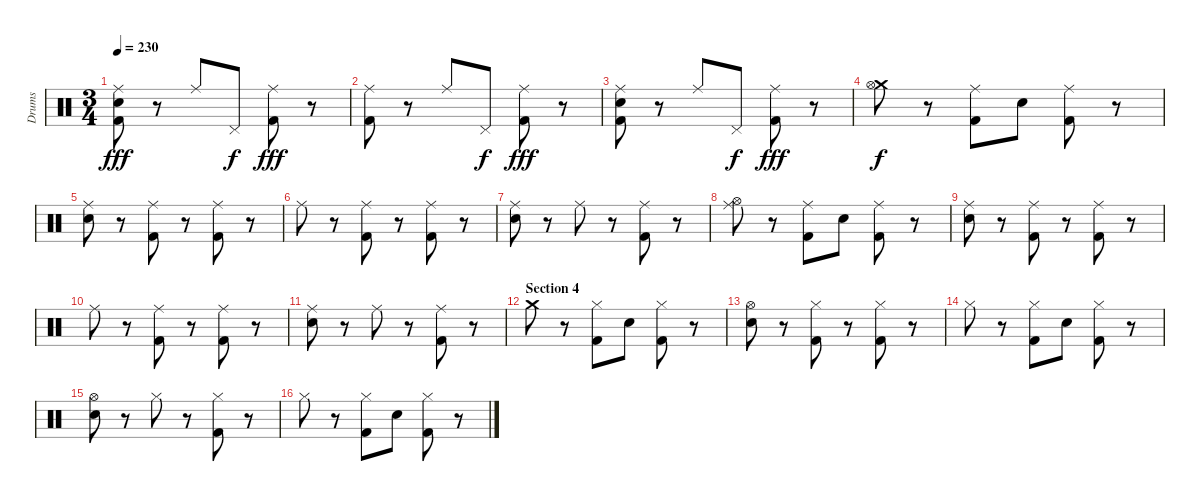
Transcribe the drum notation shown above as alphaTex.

\track ("Drums" "Drums") {instrument percussion}
\staff {score}
\articulation defaults
\ts (3 4)
\tempo 230
\clef neutral
\ks c
("Ride (middle)" "Electric Snare (hit)" "Kick (hit) 2").8{dy fff} r.8 "Ride (middle)".8 "Pedal Hi-Hat (hit)".8{dy f} ("Ride (middle)" "Kick (hit) 2").8{dy fff} r.8 |
("Ride (middle)" "Kick (hit) 2").8 r.8 "Ride (middle)".8 "Pedal Hi-Hat (hit)".8{dy f} ("Ride (middle)" "Kick (hit) 2").8{dy fff} r.8 |
("Ride (middle)" "Electric Snare (hit)" "Kick (hit) 2").8 r.8 "Ride (middle)".8 "Pedal Hi-Hat (hit)".8{dy f} ("Ride (middle)" "Kick (hit) 2").8{dy fff} r.8 |
("Crash medium (hit)" "Hi-Hat (open)").8{dy f} r.8 ("Ride (middle)" "Kick (hit) 2").8 "Electric Snare (hit)".8 ("Ride (middle)" "Kick (hit) 2").8 r.8 |
("Ride (middle)" "Electric Snare (hit)").8 r.8 ("Ride (middle)" "Kick (hit) 2").8 r.8 ("Ride (middle)" "Kick (hit) 2").8 r.8 |
"Ride (middle)".8 r.8 ("Ride (middle)" "Kick (hit) 2").8 r.8 ("Ride (middle)" "Kick (hit) 2").8 r.8 |
("Ride (middle)" "Electric Snare (hit)").8 r.8 "Ride (middle)".8 r.8 ("Ride (middle)" "Kick (hit) 2").8 r.8 |
("Ride (middle)" "Hi-Hat (open)").8 r.8 ("Ride (middle)" "Kick (hit) 2").8 "Electric Snare (hit)".8 ("Ride (middle)" "Kick (hit) 2").8 r.8 |
("Ride (middle)" "Electric Snare (hit)").8 r.8 ("Ride (middle)" "Kick (hit) 2").8 r.8 ("Ride (middle)" "Kick (hit) 2").8 r.8 |
"Ride (middle)".8 r.8 ("Ride (middle)" "Kick (hit) 2").8 r.8 ("Ride (middle)" "Kick (hit) 2").8 r.8 |
("Ride (middle)" "Electric Snare (hit)").8 r.8 "Ride (middle)".8 r.8 ("Ride (middle)" "Kick (hit) 2").8 r.8 |
\section ("" "Section 4")
"Crash medium (hit)".8 r.8 ("Hi-Hat (closed)" "Kick (hit) 2").8 "Electric Snare (hit)".8 ("Hi-Hat (closed)" "Kick (hit) 2").8 r.8 |
("Hi-Hat (open)" "Electric Snare (hit)").8 r.8 ("Hi-Hat (closed)" "Kick (hit) 2").8 r.8 ("Hi-Hat (closed)" "Kick (hit) 2").8 r.8 |
"Hi-Hat (closed)".8 r.8 ("Hi-Hat (closed)" "Kick (hit) 2").8 "Electric Snare (hit)".8 ("Hi-Hat (closed)" "Kick (hit) 2").8 r.8 |
("Hi-Hat (open)" "Electric Snare (hit)").8 r.8 "Hi-Hat (closed)".8 r.8 ("Hi-Hat (closed)" "Kick (hit) 2").8 r.8 |
"Hi-Hat (closed)".8 r.8 ("Hi-Hat (closed)" "Kick (hit) 2").8 "Electric Snare (hit)".8 ("Hi-Hat (closed)" "Kick (hit) 2").8 r.8
